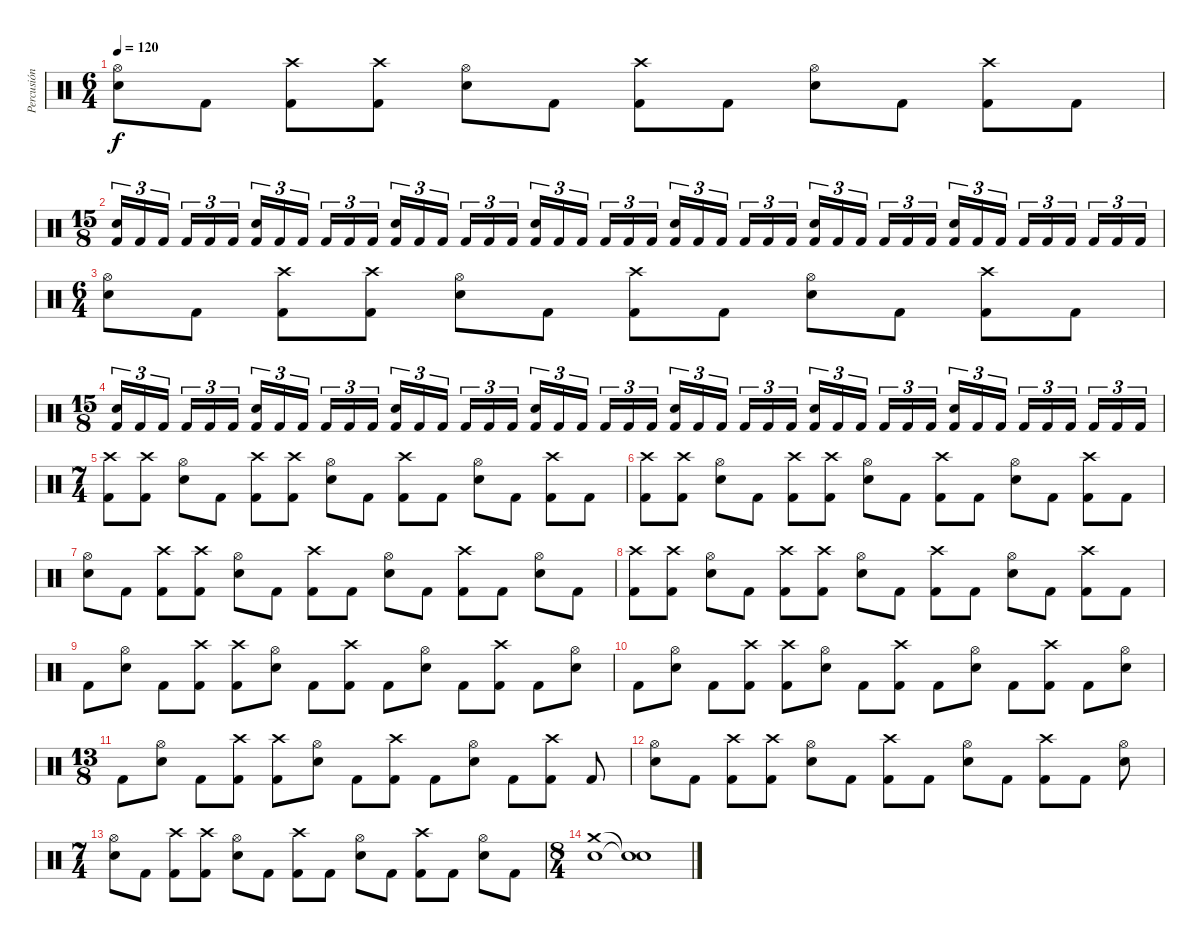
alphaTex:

\track ("Percusión" "Percusión") {instrument percussion}
\staff {score}
\articulation defaults
\ts (6 4)
\tempo 120
\clef neutral
\ks c
("Hi-Hat (open)" "Electric Snare (hit)").8{dy f} "Kick (hit) 2".8 ("Crash high (hit)" "Kick (hit) 2").8 ("Crash high (hit)" "Kick (hit) 2").8 ("Hi-Hat (open)" "Electric Snare (hit)").8 "Kick (hit) 2".8 ("Crash high (hit)" "Kick (hit) 2").8 "Kick (hit) 2".8 ("Hi-Hat (open)" "Electric Snare (hit)").8 "Kick (hit) 2".8 ("Crash high (hit)" "Kick (hit) 2").8 "Kick (hit) 2".8 |
\ts (15 8)
("Electric Snare (hit)" "Kick (hit) 2").16{tu (3 2)} "Kick (hit) 2".16{tu (3 2)} "Kick (hit) 2".16{tu (3 2)} "Kick (hit) 2".16{tu (3 2)} "Kick (hit) 2".16{tu (3 2)} "Kick (hit) 2".16{tu (3 2)} ("Electric Snare (hit)" "Kick (hit) 2").16{tu (3 2)} "Kick (hit) 2".16{tu (3 2)} "Kick (hit) 2".16{tu (3 2)} "Kick (hit) 2".16{tu (3 2)} "Kick (hit) 2".16{tu (3 2)} "Kick (hit) 2".16{tu (3 2)} ("Electric Snare (hit)" "Kick (hit) 2").16{tu (3 2)} "Kick (hit) 2".16{tu (3 2)} "Kick (hit) 2".16{tu (3 2)} "Kick (hit) 2".16{tu (3 2)} "Kick (hit) 2".16{tu (3 2)} "Kick (hit) 2".16{tu (3 2)} ("Electric Snare (hit)" "Kick (hit) 2").16{tu (3 2)} "Kick (hit) 2".16{tu (3 2)} "Kick (hit) 2".16{tu (3 2)} "Kick (hit) 2".16{tu (3 2)} "Kick (hit) 2".16{tu (3 2)} "Kick (hit) 2".16{tu (3 2)} ("Electric Snare (hit)" "Kick (hit) 2").16{tu (3 2)} "Kick (hit) 2".16{tu (3 2)} "Kick (hit) 2".16{tu (3 2)} "Kick (hit) 2".16{tu (3 2)} "Kick (hit) 2".16{tu (3 2)} "Kick (hit) 2".16{tu (3 2)} ("Electric Snare (hit)" "Kick (hit) 2").16{tu (3 2)} "Kick (hit) 2".16{tu (3 2)} "Kick (hit) 2".16{tu (3 2)} "Kick (hit) 2".16{tu (3 2)} "Kick (hit) 2".16{tu (3 2)} "Kick (hit) 2".16{tu (3 2)} ("Electric Snare (hit)" "Kick (hit) 2").16{tu (3 2)} "Kick (hit) 2".16{tu (3 2)} "Kick (hit) 2".16{tu (3 2)} "Kick (hit) 2".16{tu (3 2)} "Kick (hit) 2".16{tu (3 2)} "Kick (hit) 2".16{tu (3 2)} "Kick (hit) 2".16{tu (3 2)} "Kick (hit) 2".16{tu (3 2)} "Kick (hit) 2".16{tu (3 2)} |
\ts (6 4)
("Hi-Hat (open)" "Electric Snare (hit)").8 "Kick (hit) 2".8 ("Crash high (hit)" "Kick (hit) 2").8 ("Crash high (hit)" "Kick (hit) 2").8 ("Hi-Hat (open)" "Electric Snare (hit)").8 "Kick (hit) 2".8 ("Crash high (hit)" "Kick (hit) 2").8 "Kick (hit) 2".8 ("Hi-Hat (open)" "Electric Snare (hit)").8 "Kick (hit) 2".8 ("Crash high (hit)" "Kick (hit) 2").8 "Kick (hit) 2".8 |
\ts (15 8)
("Electric Snare (hit)" "Kick (hit) 2").16{tu (3 2)} "Kick (hit) 2".16{tu (3 2)} "Kick (hit) 2".16{tu (3 2)} "Kick (hit) 2".16{tu (3 2)} "Kick (hit) 2".16{tu (3 2)} "Kick (hit) 2".16{tu (3 2)} ("Electric Snare (hit)" "Kick (hit) 2").16{tu (3 2)} "Kick (hit) 2".16{tu (3 2)} "Kick (hit) 2".16{tu (3 2)} "Kick (hit) 2".16{tu (3 2)} "Kick (hit) 2".16{tu (3 2)} "Kick (hit) 2".16{tu (3 2)} ("Electric Snare (hit)" "Kick (hit) 2").16{tu (3 2)} "Kick (hit) 2".16{tu (3 2)} "Kick (hit) 2".16{tu (3 2)} "Kick (hit) 2".16{tu (3 2)} "Kick (hit) 2".16{tu (3 2)} "Kick (hit) 2".16{tu (3 2)} ("Electric Snare (hit)" "Kick (hit) 2").16{tu (3 2)} "Kick (hit) 2".16{tu (3 2)} "Kick (hit) 2".16{tu (3 2)} "Kick (hit) 2".16{tu (3 2)} "Kick (hit) 2".16{tu (3 2)} "Kick (hit) 2".16{tu (3 2)} ("Electric Snare (hit)" "Kick (hit) 2").16{tu (3 2)} "Kick (hit) 2".16{tu (3 2)} "Kick (hit) 2".16{tu (3 2)} "Kick (hit) 2".16{tu (3 2)} "Kick (hit) 2".16{tu (3 2)} "Kick (hit) 2".16{tu (3 2)} ("Electric Snare (hit)" "Kick (hit) 2").16{tu (3 2)} "Kick (hit) 2".16{tu (3 2)} "Kick (hit) 2".16{tu (3 2)} "Kick (hit) 2".16{tu (3 2)} "Kick (hit) 2".16{tu (3 2)} "Kick (hit) 2".16{tu (3 2)} ("Electric Snare (hit)" "Kick (hit) 2").16{tu (3 2)} "Kick (hit) 2".16{tu (3 2)} "Kick (hit) 2".16{tu (3 2)} "Kick (hit) 2".16{tu (3 2)} "Kick (hit) 2".16{tu (3 2)} "Kick (hit) 2".16{tu (3 2)} "Kick (hit) 2".16{tu (3 2)} "Kick (hit) 2".16{tu (3 2)} "Kick (hit) 2".16{tu (3 2)} |
\ts (7 4)
("Crash high (hit)" "Kick (hit) 2").8 ("Crash high (hit)" "Kick (hit) 2").8 ("Hi-Hat (open)" "Electric Snare (hit)").8 "Kick (hit) 2".8 ("Crash high (hit)" "Kick (hit) 2").8 ("Crash high (hit)" "Kick (hit) 2").8 ("Hi-Hat (open)" "Electric Snare (hit)").8 "Kick (hit) 2".8 ("Crash high (hit)" "Kick (hit) 2").8 "Kick (hit) 2".8 ("Hi-Hat (open)" "Electric Snare (hit)").8 "Kick (hit) 2".8 ("Crash high (hit)" "Kick (hit) 2").8 "Kick (hit) 2".8 |
("Crash high (hit)" "Kick (hit) 2").8 ("Crash high (hit)" "Kick (hit) 2").8 ("Hi-Hat (open)" "Electric Snare (hit)").8 "Kick (hit) 2".8 ("Crash high (hit)" "Kick (hit) 2").8 ("Crash high (hit)" "Kick (hit) 2").8 ("Hi-Hat (open)" "Electric Snare (hit)").8 "Kick (hit) 2".8 ("Crash high (hit)" "Kick (hit) 2").8 "Kick (hit) 2".8 ("Hi-Hat (open)" "Electric Snare (hit)").8 "Kick (hit) 2".8 ("Crash high (hit)" "Kick (hit) 2").8 "Kick (hit) 2".8 |
("Hi-Hat (open)" "Electric Snare (hit)").8 "Kick (hit) 2".8 ("Crash high (hit)" "Kick (hit) 2").8 ("Crash high (hit)" "Kick (hit) 2").8 ("Hi-Hat (open)" "Electric Snare (hit)").8 "Kick (hit) 2".8 ("Crash high (hit)" "Kick (hit) 2").8 "Kick (hit) 2".8 ("Hi-Hat (open)" "Electric Snare (hit)").8 "Kick (hit) 2".8 ("Crash high (hit)" "Kick (hit) 2").8 "Kick (hit) 2".8 ("Hi-Hat (open)" "Electric Snare (hit)").8 "Kick (hit) 2".8 |
("Crash high (hit)" "Kick (hit) 2").8 ("Crash high (hit)" "Kick (hit) 2").8 ("Hi-Hat (open)" "Electric Snare (hit)").8 "Kick (hit) 2".8 ("Crash high (hit)" "Kick (hit) 2").8 ("Crash high (hit)" "Kick (hit) 2").8 ("Hi-Hat (open)" "Electric Snare (hit)").8 "Kick (hit) 2".8 ("Crash high (hit)" "Kick (hit) 2").8 "Kick (hit) 2".8 ("Hi-Hat (open)" "Electric Snare (hit)").8 "Kick (hit) 2".8 ("Crash high (hit)" "Kick (hit) 2").8 "Kick (hit) 2".8 |
"Kick (hit) 2".8 ("Hi-Hat (open)" "Electric Snare (hit)").8 "Kick (hit) 2".8 ("Crash high (hit)" "Kick (hit) 2").8 ("Crash high (hit)" "Kick (hit) 2").8 ("Hi-Hat (open)" "Electric Snare (hit)").8 "Kick (hit) 2".8 ("Crash high (hit)" "Kick (hit) 2").8 "Kick (hit) 2".8 ("Hi-Hat (open)" "Electric Snare (hit)").8 "Kick (hit) 2".8 ("Crash high (hit)" "Kick (hit) 2").8 "Kick (hit) 2".8 ("Hi-Hat (open)" "Electric Snare (hit)").8 |
"Kick (hit) 2".8 ("Hi-Hat (open)" "Electric Snare (hit)").8 "Kick (hit) 2".8 ("Crash high (hit)" "Kick (hit) 2").8 ("Crash high (hit)" "Kick (hit) 2").8 ("Hi-Hat (open)" "Electric Snare (hit)").8 "Kick (hit) 2".8 ("Crash high (hit)" "Kick (hit) 2").8 "Kick (hit) 2".8 ("Hi-Hat (open)" "Electric Snare (hit)").8 "Kick (hit) 2".8 ("Crash high (hit)" "Kick (hit) 2").8 "Kick (hit) 2".8 ("Hi-Hat (open)" "Electric Snare (hit)").8 |
\ts (13 8)
"Kick (hit) 2".8 ("Hi-Hat (open)" "Electric Snare (hit)").8 "Kick (hit) 2".8 ("Crash high (hit)" "Kick (hit) 2").8 ("Crash high (hit)" "Kick (hit) 2").8 ("Hi-Hat (open)" "Electric Snare (hit)").8 "Kick (hit) 2".8 ("Crash high (hit)" "Kick (hit) 2").8 "Kick (hit) 2".8 ("Hi-Hat (open)" "Electric Snare (hit)").8 "Kick (hit) 2".8 ("Crash high (hit)" "Kick (hit) 2").8 "Kick (hit) 2".8 |
("Hi-Hat (open)" "Electric Snare (hit)").8 "Kick (hit) 2".8 ("Crash high (hit)" "Kick (hit) 2").8 ("Crash high (hit)" "Kick (hit) 2").8 ("Hi-Hat (open)" "Electric Snare (hit)").8 "Kick (hit) 2".8 ("Crash high (hit)" "Kick (hit) 2").8 "Kick (hit) 2".8 ("Hi-Hat (open)" "Electric Snare (hit)").8 "Kick (hit) 2".8 ("Crash high (hit)" "Kick (hit) 2").8 "Kick (hit) 2".8 ("Hi-Hat (open)" "Electric Snare (hit)").8 |
\ts (7 4)
("Hi-Hat (open)" "Electric Snare (hit)").8 "Kick (hit) 2".8 ("Crash high (hit)" "Kick (hit) 2").8 ("Crash high (hit)" "Kick (hit) 2").8 ("Hi-Hat (open)" "Electric Snare (hit)").8 "Kick (hit) 2".8 ("Crash high (hit)" "Kick (hit) 2").8 "Kick (hit) 2".8 ("Hi-Hat (open)" "Electric Snare (hit)").8 "Kick (hit) 2".8 ("Crash high (hit)" "Kick (hit) 2").8 "Kick (hit) 2".8 ("Hi-Hat (open)" "Electric Snare (hit)").8 "Kick (hit) 2".8 |
\ts (8 4)
("Crash medium (hit)" "Electric Snare (hit)").1 ("Snare (hit)"{t} "Snare (hit)"{t}).1
